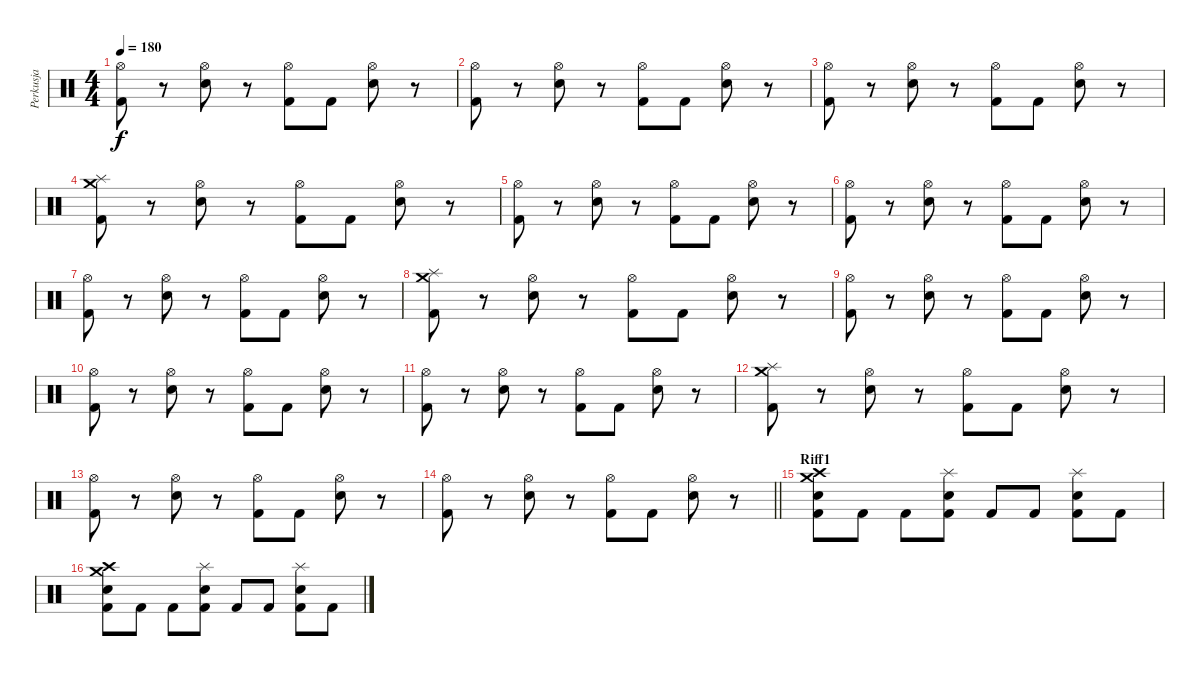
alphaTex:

\track ("Perkusja" "Perkusja") {instrument percussion}
\staff {score}
\articulation defaults
\ts (4 4)
\tempo 180
\clef neutral
\ks c
("Hi-Hat (open)" "Kick (hit) 2").8{dy f} r.8 ("Hi-Hat (open)" "Electric Snare (hit)").8 r.8 ("Hi-Hat (open)" "Kick (hit) 2").8 "Kick (hit) 2".8 ("Hi-Hat (open)" "Electric Snare (hit)").8 r.8 |
("Hi-Hat (open)" "Kick (hit) 2").8 r.8 ("Hi-Hat (open)" "Electric Snare (hit)").8 r.8 ("Hi-Hat (open)" "Kick (hit) 2").8 "Kick (hit) 2".8 ("Hi-Hat (open)" "Electric Snare (hit)").8 r.8 |
("Hi-Hat (open)" "Kick (hit) 2").8 r.8 ("Hi-Hat (open)" "Electric Snare (hit)").8 r.8 ("Hi-Hat (open)" "Kick (hit) 2").8 "Kick (hit) 2".8 ("Hi-Hat (open)" "Electric Snare (hit)").8 r.8 |
("Crash medium (hit)" "Splash (hit)" "Kick (hit) 2").8 r.8 ("Hi-Hat (open)" "Electric Snare (hit)").8 r.8 ("Hi-Hat (open)" "Kick (hit) 2").8 "Kick (hit) 2".8 ("Hi-Hat (open)" "Electric Snare (hit)").8 r.8 |
("Hi-Hat (open)" "Kick (hit) 2").8 r.8 ("Hi-Hat (open)" "Electric Snare (hit)").8 r.8 ("Hi-Hat (open)" "Kick (hit) 2").8 "Kick (hit) 2".8 ("Hi-Hat (open)" "Electric Snare (hit)").8 r.8 |
("Hi-Hat (open)" "Kick (hit) 2").8 r.8 ("Hi-Hat (open)" "Electric Snare (hit)").8 r.8 ("Hi-Hat (open)" "Kick (hit) 2").8 "Kick (hit) 2".8 ("Hi-Hat (open)" "Electric Snare (hit)").8 r.8 |
("Hi-Hat (open)" "Kick (hit) 2").8 r.8 ("Hi-Hat (open)" "Electric Snare (hit)").8 r.8 ("Hi-Hat (open)" "Kick (hit) 2").8 "Kick (hit) 2".8 ("Hi-Hat (open)" "Electric Snare (hit)").8 r.8 |
("Crash medium (hit)" "Splash (hit)" "Kick (hit) 2").8 r.8 ("Hi-Hat (open)" "Electric Snare (hit)").8 r.8 ("Hi-Hat (open)" "Kick (hit) 2").8 "Kick (hit) 2".8 ("Hi-Hat (open)" "Electric Snare (hit)").8 r.8 |
("Hi-Hat (open)" "Kick (hit) 2").8 r.8 ("Hi-Hat (open)" "Electric Snare (hit)").8 r.8 ("Hi-Hat (open)" "Kick (hit) 2").8 "Kick (hit) 2".8 ("Hi-Hat (open)" "Electric Snare (hit)").8 r.8 |
("Hi-Hat (open)" "Kick (hit) 2").8 r.8 ("Hi-Hat (open)" "Electric Snare (hit)").8 r.8 ("Hi-Hat (open)" "Kick (hit) 2").8 "Kick (hit) 2".8 ("Hi-Hat (open)" "Electric Snare (hit)").8 r.8 |
("Hi-Hat (open)" "Kick (hit) 2").8 r.8 ("Hi-Hat (open)" "Electric Snare (hit)").8 r.8 ("Hi-Hat (open)" "Kick (hit) 2").8 "Kick (hit) 2".8 ("Hi-Hat (open)" "Electric Snare (hit)").8 r.8 |
("Crash medium (hit)" "Splash (hit)" "Kick (hit) 2").8 r.8 ("Hi-Hat (open)" "Electric Snare (hit)").8 r.8 ("Hi-Hat (open)" "Kick (hit) 2").8 "Kick (hit) 2".8 ("Hi-Hat (open)" "Electric Snare (hit)").8 r.8 |
("Hi-Hat (open)" "Kick (hit) 2").8 r.8 ("Hi-Hat (open)" "Electric Snare (hit)").8 r.8 ("Hi-Hat (open)" "Kick (hit) 2").8 "Kick (hit) 2".8 ("Hi-Hat (open)" "Electric Snare (hit)").8 r.8 |
\barLineRight lightlight
("Hi-Hat (open)" "Kick (hit) 2").8 r.8 ("Hi-Hat (open)" "Electric Snare (hit)").8 r.8 ("Hi-Hat (open)" "Kick (hit) 2").8 "Kick (hit) 2".8 ("Hi-Hat (open)" "Electric Snare (hit)").8 r.8 |
\section ("" "Riff1")
("Crash medium (hit)" "Crash high (hit)" "Electric Snare (hit)" "Kick (hit) 2").8 "Kick (hit) 2".8 "Kick (hit) 2".8 ("Splash (hit)" "Electric Snare (hit)" "Kick (hit) 2").8 "Kick (hit) 2".8 "Kick (hit) 2".8 ("Splash (hit)" "Electric Snare (hit)" "Kick (hit) 2").8 "Kick (hit) 2".8 |
("Crash medium (hit)" "Crash high (hit)" "Electric Snare (hit)" "Kick (hit) 2").8 "Kick (hit) 2".8 "Kick (hit) 2".8 ("Splash (hit)" "Electric Snare (hit)" "Kick (hit) 2").8 "Kick (hit) 2".8 "Kick (hit) 2".8 ("Splash (hit)" "Electric Snare (hit)" "Kick (hit) 2").8 "Kick (hit) 2".8
